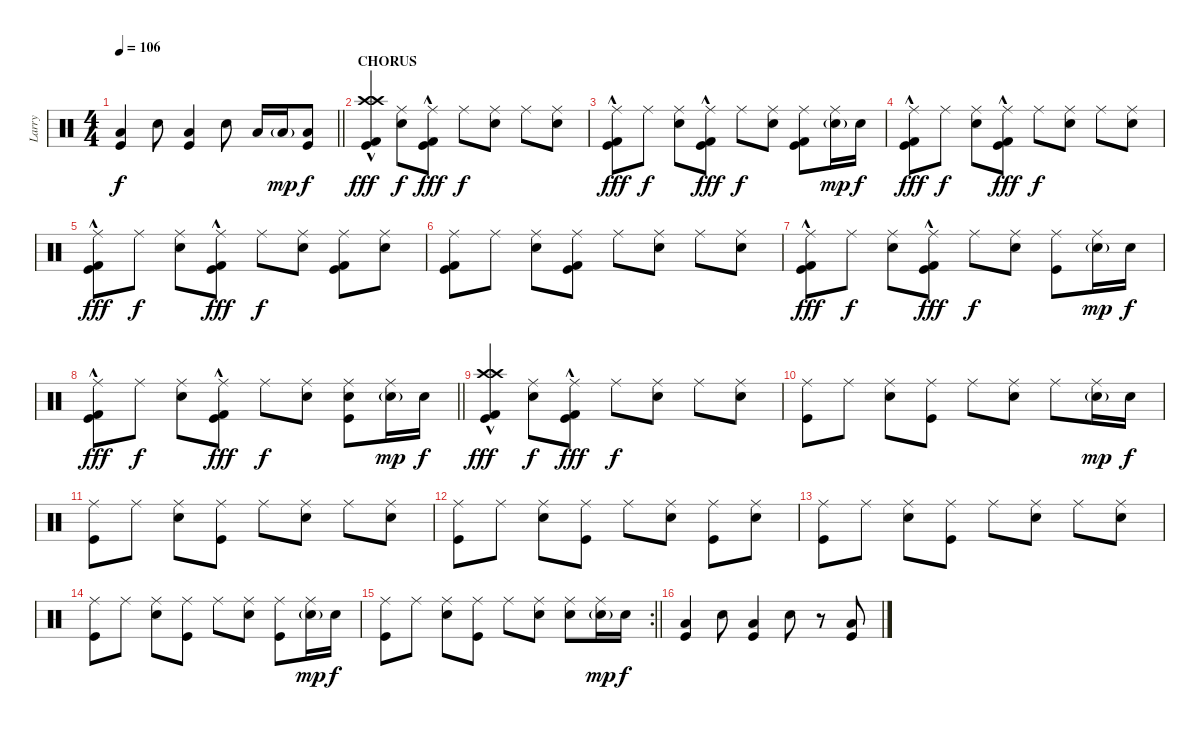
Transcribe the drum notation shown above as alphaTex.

\track ("Larry" "Larry") {instrument percussion}
\staff {score}
\articulation defaults
\ts (4 4)
\tempo 106
\clef neutral
\barLineRight lightlight
\ks c
("Low Tom (hit)" "Kick (hit)").4{dy f} "Snare (hit) 2".8 ("Low Tom (hit)" "Kick (hit)").4 "Snare (hit) 2".8 "Low Tom (hit)".16 "Low Tom (hit)"{g}.16{dy mp} ("Low Tom (hit)" "Kick (hit)").8{dy f} |
\section ("" "CHORUS")
("Crash high (hit)" "Crash high (hit)" "Kick (hit) 2" "Kick (hit)"{hac}).4{dy fff} ("Ride (middle)" "Snare (hit) 2").8{dy f} ("Ride (middle)" "Kick (hit) 2" "Kick (hit)"{hac}).8{dy fff} "Ride (middle)".8{dy f} ("Ride (middle)" "Snare (hit) 2").8 "Ride (middle)".8 ("Ride (middle)" "Snare (hit) 2").8 |
("Ride (middle)" "Kick (hit) 2" "Kick (hit)"{hac}).8{dy fff} "Ride (middle)".8{dy f} ("Ride (middle)" "Snare (hit) 2").8 ("Ride (middle)" "Kick (hit) 2" "Kick (hit)"{hac}).8{dy fff} "Ride (middle)".8{dy f} ("Ride (middle)" "Snare (hit) 2").8 ("Ride (middle)" "Kick (hit) 2" "Kick (hit)").8 ("Ride (middle)" "Snare (hit) 2"{g}).16{dy mp} "Snare (hit) 2".16{dy f} |
("Ride (middle)" "Kick (hit) 2" "Kick (hit)"{hac}).8{dy fff} "Ride (middle)".8{dy f} ("Ride (middle)" "Snare (hit) 2").8 ("Ride (middle)" "Kick (hit) 2" "Kick (hit)"{hac}).8{dy fff} "Ride (middle)".8{dy f} ("Ride (middle)" "Snare (hit) 2").8 "Ride (middle)".8 ("Ride (middle)" "Snare (hit) 2").8 |
("Ride (middle)" "Kick (hit) 2" "Kick (hit)"{hac}).8{dy fff} "Ride (middle)".8{dy f} ("Ride (middle)" "Snare (hit) 2").8 ("Ride (middle)" "Kick (hit) 2" "Kick (hit)"{hac}).8{dy fff} "Ride (middle)".8{dy f} ("Ride (middle)" "Snare (hit) 2").8 ("Ride (middle)" "Kick (hit) 2" "Kick (hit)").8 ("Ride (middle)" "Snare (hit) 2").8 |
("Ride (middle)" "Kick (hit) 2" "Kick (hit)").8 "Ride (middle)".8 ("Ride (middle)" "Snare (hit) 2").8 ("Ride (middle)" "Kick (hit) 2" "Kick (hit)").8 "Ride (middle)".8 ("Ride (middle)" "Snare (hit) 2").8 "Ride (middle)".8 ("Ride (middle)" "Snare (hit) 2").8 |
("Ride (middle)" "Kick (hit) 2" "Kick (hit)"{hac}).8{dy fff} "Ride (middle)".8{dy f} ("Ride (middle)" "Snare (hit) 2").8 ("Ride (middle)" "Kick (hit) 2" "Kick (hit)"{hac}).8{dy fff} "Ride (middle)".8{dy f} ("Ride (middle)" "Snare (hit) 2").8 ("Ride (middle)" "Kick (hit)").8 ("Ride (middle)" "Snare (hit) 2"{g}).16{dy mp} "Snare (hit) 2".16{dy f} |
\barLineRight lightlight
("Ride (middle)" "Kick (hit) 2" "Kick (hit)"{hac}).8{dy fff} "Ride (middle)".8{dy f} ("Ride (middle)" "Snare (hit) 2").8 ("Ride (middle)" "Kick (hit) 2" "Kick (hit)"{hac}).8{dy fff} "Ride (middle)".8{dy f} ("Ride (middle)" "Snare (hit) 2").8 ("Ride (middle)" "Snare (hit) 2" "Kick (hit)").8 ("Ride (middle)" "Snare (hit) 2"{g}).16{dy mp} "Snare (hit) 2".16{dy f} |
("Crash high (hit)" "Crash high (hit)" "Kick (hit) 2" "Kick (hit)"{hac}).4{dy fff} ("Ride (middle)" "Snare (hit) 2").8{dy f} ("Ride (middle)" "Kick (hit) 2" "Kick (hit)"{hac}).8{dy fff} "Ride (middle)".8{dy f} ("Ride (middle)" "Snare (hit) 2").8 "Ride (middle)".8 ("Ride (middle)" "Snare (hit) 2").8 |
("Ride (middle)" "Kick (hit)").8 "Ride (middle)".8 ("Ride (middle)" "Snare (hit) 2").8 ("Ride (middle)" "Kick (hit)").8 "Ride (middle)".8 ("Ride (middle)" "Snare (hit) 2").8 "Ride (middle)".8 ("Ride (middle)" "Snare (hit) 2"{g}).16{dy mp} "Snare (hit) 2".16{dy f} |
("Ride (middle)" "Kick (hit)").8 "Ride (middle)".8 ("Ride (middle)" "Snare (hit) 2").8 ("Ride (middle)" "Kick (hit)").8 "Ride (middle)".8 ("Ride (middle)" "Snare (hit) 2").8 "Ride (middle)".8 ("Ride (middle)" "Snare (hit) 2").8 |
("Ride (middle)" "Kick (hit)").8 "Ride (middle)".8 ("Ride (middle)" "Snare (hit) 2").8 ("Ride (middle)" "Kick (hit)").8 "Ride (middle)".8 ("Ride (middle)" "Snare (hit) 2").8 ("Ride (middle)" "Kick (hit)").8 ("Ride (middle)" "Snare (hit) 2").8 |
("Ride (middle)" "Kick (hit)").8 "Ride (middle)".8 ("Ride (middle)" "Snare (hit) 2").8 ("Ride (middle)" "Kick (hit)").8 "Ride (middle)".8 ("Ride (middle)" "Snare (hit) 2").8 "Ride (middle)".8 ("Ride (middle)" "Snare (hit) 2").8 |
("Ride (middle)" "Kick (hit)").8 "Ride (middle)".8 ("Ride (middle)" "Snare (hit) 2").8 ("Ride (middle)" "Kick (hit)").8 "Ride (middle)".8 ("Ride (middle)" "Snare (hit) 2").8 ("Ride (middle)" "Kick (hit)").8 ("Ride (middle)" "Snare (hit) 2"{g}).16{dy mp} "Snare (hit) 2".16{dy f} |
\rc 2
\barLineRight lightlight
("Ride (middle)" "Kick (hit)").8 "Ride (middle)".8 ("Ride (middle)" "Snare (hit) 2").8 ("Ride (middle)" "Kick (hit)").8 "Ride (middle)".8 ("Ride (middle)" "Snare (hit) 2").8 ("Ride (middle)" "Snare (hit) 2").8 ("Ride (middle)" "Snare (hit) 2"{g}).16{dy mp} "Snare (hit) 2".16{dy f} |
("Low Tom (hit)" "Kick (hit)").4 "Snare (hit) 2".8 ("Low Tom (hit)" "Kick (hit)").4 "Snare (hit) 2".8 r.8 ("Low Tom (hit)" "Kick (hit)").8
